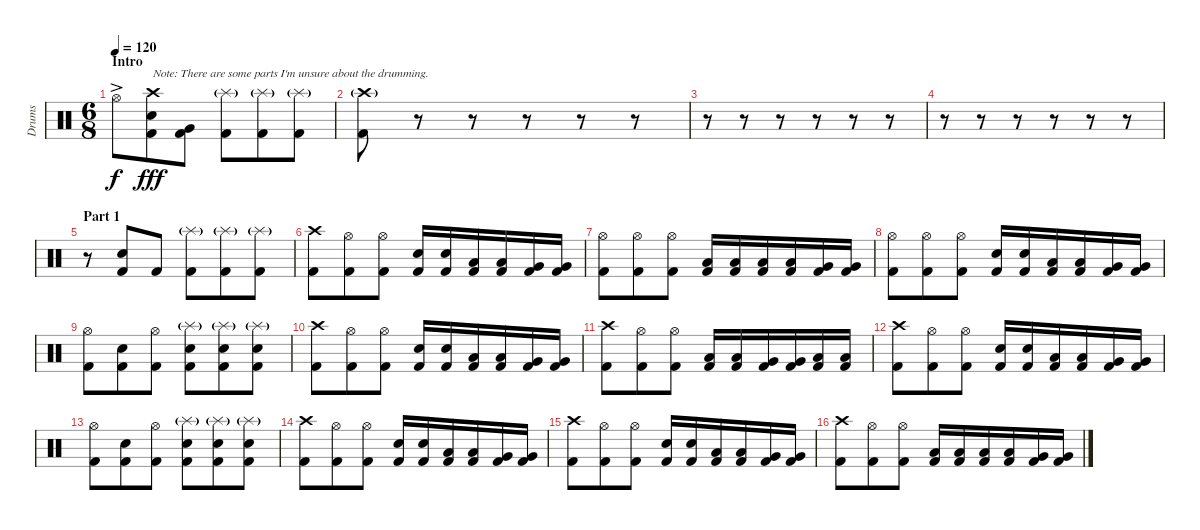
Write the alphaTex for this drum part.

\track ("Drums" "Drums") {instrument percussion}
\staff {score}
\articulation defaults
\ts (6 8)
\section ("" "Intro")
\tempo 120
\clef neutral
\ks c "Hi-Hat (open)"{ac}.8{dy f}
("Crash high (hit)" "Electric Snare (hit)" "Kick (hit) 2").8{txt "Note: There are some parts I'm unsure about the drumming." dy fff} ("Very Low Tom (hit)" "Kick (hit) 2").8 ("Splash (hit)"{g} "Kick (hit) 2").8 ("Splash (hit)"{g} "Kick (hit) 2").8 ("Splash (hit)"{g} "Kick (hit) 2").8 |
("Crash high (hit)"{g} "Kick (hit) 2").8 r.8 r.8 r.8 r.8 r.8 |
r.8 r.8 r.8 r.8 r.8 r.8 |
r.8 r.8 r.8 r.8 r.8 r.8 |
\section ("" "Part 1")
r.8 ("Electric Snare (hit)" "Kick (hit) 2").8 "Kick (hit) 2".8 ("Splash (hit)"{g} "Kick (hit) 2").8 ("Splash (hit)"{g} "Kick (hit) 2").8 ("Splash (hit)"{g} "Kick (hit) 2").8 |
("Crash high (hit)" "Kick (hit) 2").8 ("Hi-Hat (open)" "Kick (hit) 2").8 ("Hi-Hat (open)" "Kick (hit) 2").8 ("Electric Snare (hit)" "Kick (hit) 2").16 ("Electric Snare (hit)" "Kick (hit) 2").16 ("Low Tom (hit)" "Kick (hit) 2").16 ("Low Tom (hit)" "Kick (hit) 2").16 ("Very Low Tom (hit)" "Kick (hit) 2").16 ("Very Low Tom (hit)" "Kick (hit) 2").16 |
("Hi-Hat (open)" "Kick (hit) 2").8 ("Hi-Hat (open)" "Kick (hit) 2").8 ("Hi-Hat (open)" "Kick (hit) 2").8 ("Low Tom (hit)" "Kick (hit) 2").16 ("Low Tom (hit)" "Kick (hit) 2").16 ("Low Tom (hit)" "Kick (hit) 2").16 ("Low Tom (hit)" "Kick (hit) 2").16 ("Very Low Tom (hit)" "Kick (hit) 2").16 ("Very Low Tom (hit)" "Kick (hit) 2").16 |
("Hi-Hat (open)" "Kick (hit) 2").8 ("Hi-Hat (open)" "Kick (hit) 2").8 ("Hi-Hat (open)" "Kick (hit) 2").8 ("Electric Snare (hit)" "Kick (hit) 2").16 ("Electric Snare (hit)" "Kick (hit) 2").16 ("Low Tom (hit)" "Kick (hit) 2").16 ("Low Tom (hit)" "Kick (hit) 2").16 ("Very Low Tom (hit)" "Kick (hit) 2").16 ("Very Low Tom (hit)" "Kick (hit) 2").16 |
("Hi-Hat (open)" "Kick (hit) 2").8 ("Electric Snare (hit)" "Kick (hit) 2").8 ("Hi-Hat (open)" "Kick (hit) 2").8 ("Splash (hit)"{g} "Electric Snare (hit)" "Kick (hit) 2").8 ("Splash (hit)"{g} "Electric Snare (hit)" "Kick (hit) 2").8 ("Splash (hit)"{g} "Electric Snare (hit)" "Kick (hit) 2").8 |
("Crash high (hit)" "Kick (hit) 2").8 ("Hi-Hat (open)" "Kick (hit) 2").8 ("Hi-Hat (open)" "Kick (hit) 2").8 ("Electric Snare (hit)" "Kick (hit) 2").16 ("Electric Snare (hit)" "Kick (hit) 2").16 ("Low Tom (hit)" "Kick (hit) 2").16 ("Low Tom (hit)" "Kick (hit) 2").16 ("Very Low Tom (hit)" "Kick (hit) 2").16 ("Very Low Tom (hit)" "Kick (hit) 2").16 |
("Crash high (hit)" "Kick (hit) 2").8 ("Hi-Hat (open)" "Kick (hit) 2").8 ("Hi-Hat (open)" "Kick (hit) 2").8 ("Low Tom (hit)" "Kick (hit) 2").16 ("Low Tom (hit)" "Kick (hit) 2").16 ("Very Low Tom (hit)" "Kick (hit) 2").16 ("Very Low Tom (hit)" "Kick (hit) 2").16 ("Low Floor Tom (hit)" "Kick (hit) 2").16 ("Low Floor Tom (hit)" "Kick (hit) 2").16 |
("Crash high (hit)" "Kick (hit) 2").8 ("Hi-Hat (open)" "Kick (hit) 2").8 ("Hi-Hat (open)" "Kick (hit) 2").8 ("Electric Snare (hit)" "Kick (hit) 2").16 ("Electric Snare (hit)" "Kick (hit) 2").16 ("Low Tom (hit)" "Kick (hit) 2").16 ("Low Tom (hit)" "Kick (hit) 2").16 ("Very Low Tom (hit)" "Kick (hit) 2").16 ("Very Low Tom (hit)" "Kick (hit) 2").16 |
("Hi-Hat (open)" "Kick (hit) 2").8 ("Electric Snare (hit)" "Kick (hit) 2").8 ("Hi-Hat (open)" "Kick (hit) 2").8 ("Splash (hit)"{g} "Electric Snare (hit)" "Kick (hit) 2").8 ("Splash (hit)"{g} "Electric Snare (hit)" "Kick (hit) 2").8 ("Splash (hit)"{g} "Electric Snare (hit)" "Kick (hit) 2").8 |
("Crash high (hit)" "Kick (hit) 2").8 ("Hi-Hat (open)" "Kick (hit) 2").8 ("Hi-Hat (open)" "Kick (hit) 2").8 ("Electric Snare (hit)" "Kick (hit) 2").16 ("Electric Snare (hit)" "Kick (hit) 2").16 ("Low Tom (hit)" "Kick (hit) 2").16 ("Low Tom (hit)" "Kick (hit) 2").16 ("Very Low Tom (hit)" "Kick (hit) 2").16 ("Very Low Tom (hit)" "Kick (hit) 2").16 |
("Crash high (hit)" "Kick (hit) 2").8 ("Hi-Hat (open)" "Kick (hit) 2").8 ("Hi-Hat (open)" "Kick (hit) 2").8 ("Electric Snare (hit)" "Kick (hit) 2").16 ("Electric Snare (hit)" "Kick (hit) 2").16 ("Low Tom (hit)" "Kick (hit) 2").16 ("Low Tom (hit)" "Kick (hit) 2").16 ("Very Low Tom (hit)" "Kick (hit) 2").16 ("Very Low Tom (hit)" "Kick (hit) 2").16 |
("Crash high (hit)" "Kick (hit) 2").8 ("Hi-Hat (open)" "Kick (hit) 2").8 ("Hi-Hat (open)" "Kick (hit) 2").8 ("Low Tom (hit)" "Kick (hit) 2").16 ("Low Tom (hit)" "Kick (hit) 2").16 ("Low Tom (hit)" "Kick (hit) 2").16 ("Low Tom (hit)" "Kick (hit) 2").16 ("Very Low Tom (hit)" "Kick (hit) 2").16 ("Very Low Tom (hit)" "Kick (hit) 2").16
